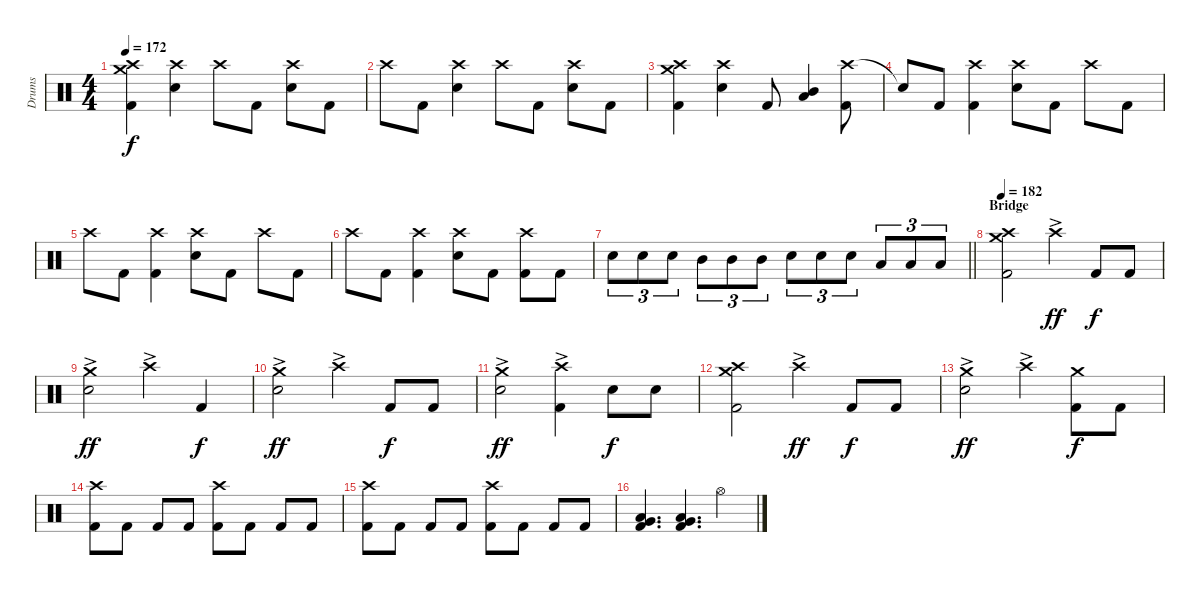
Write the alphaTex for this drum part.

\track ("Drums" "Drums") {instrument percussion}
\staff {score}
\articulation defaults
\ts (4 4)
\tempo 172
\clef neutral
\ks c
("Crash medium (hit)" "Crash high (hit)" "Kick (hit) 2").4{dy f} ("Crash high (hit)" "Electric Snare (hit)").4 "Crash high (hit)".8 "Kick (hit) 2".8 ("Crash high (hit)" "Electric Snare (hit)").8 "Kick (hit) 2".8 |
"Crash high (hit)".8 "Kick (hit) 2".8 ("Crash high (hit)" "Electric Snare (hit)").4 "Crash high (hit)".8 "Kick (hit) 2".8 ("Crash high (hit)" "Electric Snare (hit)").8 "Kick (hit) 2".8 |
("Crash medium (hit)" "Crash high (hit)" "Kick (hit) 2").4 ("Crash high (hit)" "Electric Snare (hit)").4 "Kick (hit) 2".8 ("Mid Tom (hit)" "Low Tom (hit)").4{bu 120} ("Crash high (hit)" "Kick (hit) 2").8 |
"Snare (hit)"{t}.8 "Kick (hit) 2".8 ("Crash high (hit)" "Kick (hit) 2").4 ("Crash high (hit)" "Electric Snare (hit)").8 "Kick (hit) 2".8 "Crash high (hit)".8 "Kick (hit) 2".8 |
"Crash high (hit)".8 "Kick (hit) 2".8 ("Crash high (hit)" "Kick (hit) 2").4 ("Crash high (hit)" "Electric Snare (hit)").8 "Kick (hit) 2".8 "Crash high (hit)".8 "Kick (hit) 2".8 |
"Crash high (hit)".8 "Kick (hit) 2".8 ("Crash high (hit)" "Kick (hit) 2").4 ("Crash high (hit)" "Electric Snare (hit)").8 "Kick (hit) 2".8 ("Crash high (hit)" "Kick (hit) 2").8 "Kick (hit) 2".8 |
\barLineRight lightlight "Electric Snare (hit)".8{tu (3 2)} "Electric Snare (hit)".8{tu (3 2)} "Electric Snare (hit)".8{tu (3 2)} "Mid Tom (hit)".8{tu (3 2)} "Mid Tom (hit)".8{tu (3 2)} "Mid Tom (hit)".8{tu (3 2)} "Electric Snare (hit)".8{tu (3 2)} "Electric Snare (hit)".8{tu (3 2)} "Electric Snare (hit)".8{tu (3 2)} "Low Tom (hit)".8{tu (3 2)} "Low Tom (hit)".8{tu (3 2)} "Low Tom (hit)".8{tu (3 2)}
|
\section ("" "Bridge")
\tempo 182
("Crash medium (hit)" "Crash high (hit)" "Kick (hit) 2").2 "Crash high (hit)"{ac}.4{dy ff} "Kick (hit) 2".8{dy f} "Kick (hit) 2".8 |
("Crash medium (hit)"{ac} "Electric Snare (hit)").2{dy ff} "Crash high (hit)"{ac}.4 "Kick (hit) 2".4{dy f} |
("Crash medium (hit)"{ac} "Electric Snare (hit)").2{dy ff} "Crash high (hit)"{ac}.4 "Kick (hit) 2".8{dy f} "Kick (hit) 2".8 |
("Crash medium (hit)"{ac} "Electric Snare (hit)").2{dy ff} ("Crash high (hit)"{ac} "Kick (hit) 2").4 "Electric Snare (hit)".8{dy f} "Electric Snare (hit)".8 |
("Crash medium (hit)" "Crash high (hit)" "Kick (hit) 2").2 "Crash high (hit)"{ac}.4{dy ff} "Kick (hit) 2".8{dy f} "Kick (hit) 2".8 |
("Crash medium (hit)"{ac} "Electric Snare (hit)").2{dy ff} "Crash high (hit)"{ac}.4 ("Crash medium (hit)" "Kick (hit) 2").8{dy f} "Kick (hit) 2".8 |
("Crash high (hit)" "Kick (hit) 2").8{volume 7} "Kick (hit) 2".8{volume 14} "Kick (hit) 2".8 "Kick (hit) 2".8 ("Crash high (hit)" "Kick (hit) 2").8 "Kick (hit) 2".8 "Kick (hit) 2".8 "Kick (hit) 2".8 |
("Crash high (hit)" "Kick (hit) 2").8 "Kick (hit) 2".8 "Kick (hit) 2".8 "Kick (hit) 2".8 ("Crash high (hit)" "Kick (hit) 2").8 "Kick (hit) 2".8 "Kick (hit) 2".8 "Kick (hit) 2".8 |
("Very Low Tom (hit)" "Low Floor Tom (hit)" "Kick (hit) 2").4{d} ("Very Low Tom (hit)" "Low Floor Tom (hit)" "Kick (hit) 2").4{d} "Hi-Hat (open)".4
